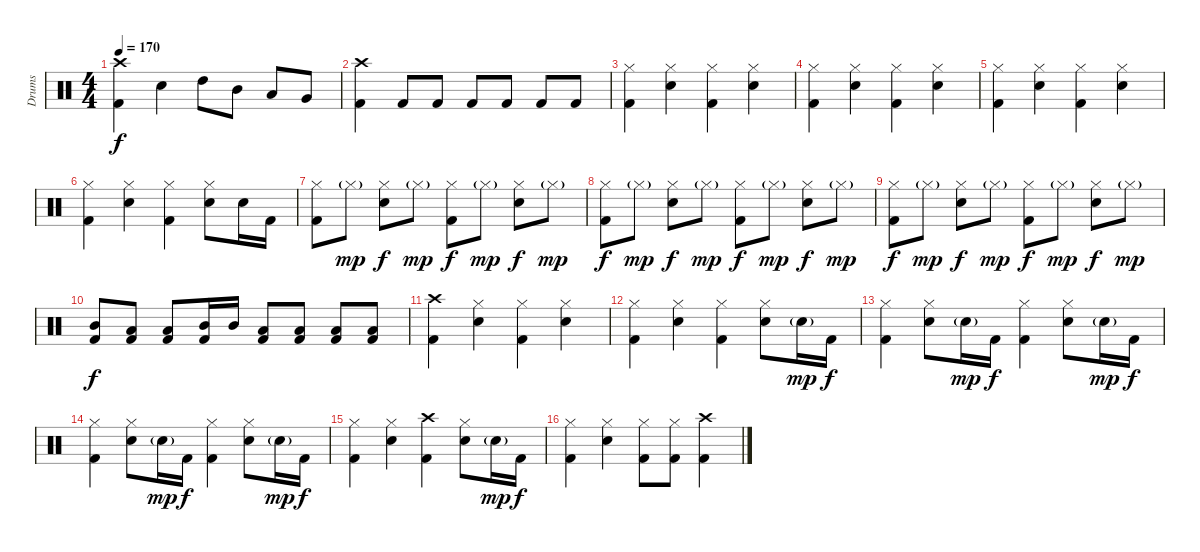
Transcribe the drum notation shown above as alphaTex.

\track ("Drums" "Drums") {instrument percussion}
\staff {score}
\articulation defaults
\ts (4 4)
\tempo 170
\clef neutral
\ks c
("Crash high (hit)" "Kick (hit) 2").4{dy f} "Electric Snare (hit)".4 "High Tom (hit)".8 "Mid Tom (hit)".8 "Low Tom (hit)".8 "Very Low Tom (hit)".8 |
("Crash high (hit)" "Kick (hit) 2").4 "Kick (hit) 2".8 "Kick (hit) 2".8 "Kick (hit) 2".8 "Kick (hit) 2".8 "Kick (hit) 2".8 "Kick (hit) 2".8 |
("Hi-Hat (closed)" "Kick (hit) 2").4{volume 10} ("Hi-Hat (closed)" "Electric Snare (hit)").4 ("Hi-Hat (closed)" "Kick (hit) 2").4 ("Hi-Hat (closed)" "Electric Snare (hit)").4 |
("Hi-Hat (closed)" "Kick (hit) 2").4 ("Hi-Hat (closed)" "Electric Snare (hit)").4 ("Hi-Hat (closed)" "Kick (hit) 2").4 ("Hi-Hat (closed)" "Electric Snare (hit)").4 |
("Hi-Hat (closed)" "Kick (hit) 2").4 ("Hi-Hat (closed)" "Electric Snare (hit)").4 ("Hi-Hat (closed)" "Kick (hit) 2").4 ("Hi-Hat (closed)" "Electric Snare (hit)").4 |
("Hi-Hat (closed)" "Kick (hit) 2").4 ("Hi-Hat (closed)" "Electric Snare (hit)").4 ("Hi-Hat (closed)" "Kick (hit) 2").4 ("Hi-Hat (closed)" "Electric Snare (hit)").8 "Electric Snare (hit)".16 "Kick (hit) 2".16 |
("Hi-Hat (closed)" "Kick (hit) 2").8 "Hi-Hat (closed)"{g}.8{dy mp} ("Hi-Hat (closed)" "Electric Snare (hit)").8{dy f} "Hi-Hat (closed)"{g}.8{dy mp} ("Hi-Hat (closed)" "Kick (hit) 2").8{dy f} "Hi-Hat (closed)"{g}.8{dy mp} ("Hi-Hat (closed)" "Electric Snare (hit)").8{dy f} "Hi-Hat (closed)"{g}.8{dy mp} |
("Hi-Hat (closed)" "Kick (hit) 2").8{dy f} "Hi-Hat (closed)"{g}.8{dy mp} ("Hi-Hat (closed)" "Electric Snare (hit)").8{dy f} "Hi-Hat (closed)"{g}.8{dy mp} ("Hi-Hat (closed)" "Kick (hit) 2").8{dy f} "Hi-Hat (closed)"{g}.8{dy mp} ("Hi-Hat (closed)" "Electric Snare (hit)").8{dy f} "Hi-Hat (closed)"{g}.8{dy mp} |
("Hi-Hat (closed)" "Kick (hit) 2").8{dy f} "Hi-Hat (closed)"{g}.8{dy mp} ("Hi-Hat (closed)" "Electric Snare (hit)").8{dy f} "Hi-Hat (closed)"{g}.8{dy mp} ("Hi-Hat (closed)" "Kick (hit) 2").8{dy f} "Hi-Hat (closed)"{g}.8{dy mp} ("Hi-Hat (closed)" "Electric Snare (hit)").8{dy f} "Hi-Hat (closed)"{g}.8{dy mp} |
("Mid Tom (hit)" "Kick (hit) 2").8{dy f} ("Low Tom (hit)" "Kick (hit) 2").8 ("Low Tom (hit)" "Kick (hit) 2").8 ("Mid Tom (hit)" "Kick (hit) 2").16 "Mid Tom (hit)".16 ("Low Tom (hit)" "Kick (hit) 2").8 ("Low Tom (hit)" "Kick (hit) 2").8 ("Low Tom (hit)" "Kick (hit) 2").8 ("Low Tom (hit)" "Kick (hit) 2").8 |
("Crash high (hit)" "Kick (hit) 2").4 ("Hi-Hat (closed)" "Electric Snare (hit)").4 ("Hi-Hat (closed)" "Kick (hit) 2").4 ("Hi-Hat (closed)" "Electric Snare (hit)").4 |
("Hi-Hat (closed)" "Kick (hit) 2").4 ("Hi-Hat (closed)" "Electric Snare (hit)").4 ("Hi-Hat (closed)" "Kick (hit) 2").4 ("Hi-Hat (closed)" "Electric Snare (hit)").8 "Electric Snare (hit)"{g}.16{dy mp} "Kick (hit) 2".16{dy f} |
("Hi-Hat (closed)" "Kick (hit) 2").4 ("Hi-Hat (closed)" "Electric Snare (hit)").8 "Electric Snare (hit)"{g}.16{dy mp} "Kick (hit) 2".16{dy f} ("Hi-Hat (closed)" "Kick (hit) 2").4 ("Hi-Hat (closed)" "Electric Snare (hit)").8 "Electric Snare (hit)"{g}.16{dy mp} "Kick (hit) 2".16{dy f} |
("Hi-Hat (closed)" "Kick (hit) 2").4 ("Hi-Hat (closed)" "Electric Snare (hit)").8 "Electric Snare (hit)"{g}.16{dy mp} "Kick (hit) 2".16{dy f} ("Hi-Hat (closed)" "Kick (hit) 2").4 ("Hi-Hat (closed)" "Electric Snare (hit)").8 "Electric Snare (hit)"{g}.16{dy mp} "Kick (hit) 2".16{dy f} |
("Hi-Hat (closed)" "Kick (hit) 2").4 ("Hi-Hat (closed)" "Electric Snare (hit)").4 ("Crash high (hit)" "Kick (hit) 2").4 ("Hi-Hat (closed)" "Electric Snare (hit)").8 "Electric Snare (hit)"{g}.16{dy mp} "Kick (hit) 2".16{dy f} |
("Hi-Hat (closed)" "Kick (hit) 2").4 ("Hi-Hat (closed)" "Electric Snare (hit)").4 ("Hi-Hat (closed)" "Kick (hit) 2").8 ("Hi-Hat (closed)" "Kick (hit) 2").8 ("Crash high (hit)" "Kick (hit) 2").4
